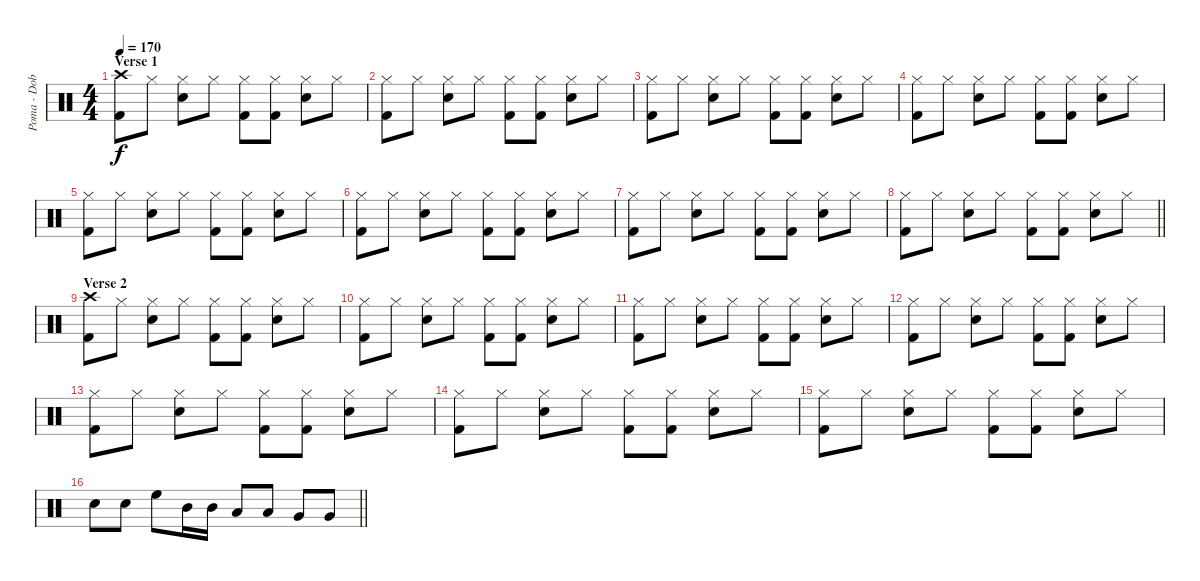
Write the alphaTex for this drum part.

\track ("Poma - Dob" "Poma - Dob") {instrument percussion}
\staff {score}
\articulation defaults
\ts (4 4)
\section ("" "Verse 1")
\tempo 170
\clef neutral
\ks c
("Crash high (hit)" "Kick (hit) 2").8{dy f} "Hi-Hat (closed)".8 ("Hi-Hat (closed)" "Electric Snare (hit)").8 "Hi-Hat (closed)".8 ("Hi-Hat (closed)" "Kick (hit) 2").8 ("Hi-Hat (closed)" "Kick (hit) 2").8 ("Hi-Hat (closed)" "Electric Snare (hit)").8 "Hi-Hat (closed)".8 |
("Hi-Hat (closed)" "Kick (hit) 2").8 "Hi-Hat (closed)".8 ("Hi-Hat (closed)" "Electric Snare (hit)").8 "Hi-Hat (closed)".8 ("Hi-Hat (closed)" "Kick (hit) 2").8 ("Hi-Hat (closed)" "Kick (hit) 2").8 ("Hi-Hat (closed)" "Electric Snare (hit)").8 "Hi-Hat (closed)".8 |
("Hi-Hat (closed)" "Kick (hit) 2").8 "Hi-Hat (closed)".8 ("Hi-Hat (closed)" "Electric Snare (hit)").8 "Hi-Hat (closed)".8 ("Hi-Hat (closed)" "Kick (hit) 2").8 ("Hi-Hat (closed)" "Kick (hit) 2").8 ("Hi-Hat (closed)" "Electric Snare (hit)").8 "Hi-Hat (closed)".8 |
("Hi-Hat (closed)" "Kick (hit) 2").8 "Hi-Hat (closed)".8 ("Hi-Hat (closed)" "Electric Snare (hit)").8 "Hi-Hat (closed)".8 ("Hi-Hat (closed)" "Kick (hit) 2").8 ("Hi-Hat (closed)" "Kick (hit) 2").8 ("Hi-Hat (closed)" "Electric Snare (hit)").8 "Hi-Hat (closed)".8 |
("Hi-Hat (closed)" "Kick (hit) 2").8 "Hi-Hat (closed)".8 ("Hi-Hat (closed)" "Electric Snare (hit)").8 "Hi-Hat (closed)".8 ("Hi-Hat (closed)" "Kick (hit) 2").8 ("Hi-Hat (closed)" "Kick (hit) 2").8 ("Hi-Hat (closed)" "Electric Snare (hit)").8 "Hi-Hat (closed)".8 |
("Hi-Hat (closed)" "Kick (hit) 2").8 "Hi-Hat (closed)".8 ("Hi-Hat (closed)" "Electric Snare (hit)").8 "Hi-Hat (closed)".8 ("Hi-Hat (closed)" "Kick (hit) 2").8 ("Hi-Hat (closed)" "Kick (hit) 2").8 ("Hi-Hat (closed)" "Electric Snare (hit)").8 "Hi-Hat (closed)".8 |
("Hi-Hat (closed)" "Kick (hit) 2").8 "Hi-Hat (closed)".8 ("Hi-Hat (closed)" "Electric Snare (hit)").8 "Hi-Hat (closed)".8 ("Hi-Hat (closed)" "Kick (hit) 2").8 ("Hi-Hat (closed)" "Kick (hit) 2").8 ("Hi-Hat (closed)" "Electric Snare (hit)").8 "Hi-Hat (closed)".8 |
\barLineRight lightlight
("Hi-Hat (closed)" "Kick (hit) 2").8 "Hi-Hat (closed)".8 ("Hi-Hat (closed)" "Electric Snare (hit)").8 "Hi-Hat (closed)".8 ("Hi-Hat (closed)" "Kick (hit) 2").8 ("Hi-Hat (closed)" "Kick (hit) 2").8 ("Hi-Hat (closed)" "Electric Snare (hit)").8 "Hi-Hat (closed)".8 |
\section ("" "Verse 2")
("Crash high (hit)" "Kick (hit) 2").8 "Hi-Hat (closed)".8 ("Hi-Hat (closed)" "Electric Snare (hit)").8 "Hi-Hat (closed)".8 ("Hi-Hat (closed)" "Kick (hit) 2").8 ("Hi-Hat (closed)" "Kick (hit) 2").8 ("Hi-Hat (closed)" "Electric Snare (hit)").8 "Hi-Hat (closed)".8 |
("Hi-Hat (closed)" "Kick (hit) 2").8 "Hi-Hat (closed)".8 ("Hi-Hat (closed)" "Electric Snare (hit)").8 "Hi-Hat (closed)".8 ("Hi-Hat (closed)" "Kick (hit) 2").8 ("Hi-Hat (closed)" "Kick (hit) 2").8 ("Hi-Hat (closed)" "Electric Snare (hit)").8 "Hi-Hat (closed)".8 |
("Hi-Hat (closed)" "Kick (hit) 2").8 "Hi-Hat (closed)".8 ("Hi-Hat (closed)" "Electric Snare (hit)").8 "Hi-Hat (closed)".8 ("Hi-Hat (closed)" "Kick (hit) 2").8 ("Hi-Hat (closed)" "Kick (hit) 2").8 ("Hi-Hat (closed)" "Electric Snare (hit)").8 "Hi-Hat (closed)".8 |
("Hi-Hat (closed)" "Kick (hit) 2").8 "Hi-Hat (closed)".8 ("Hi-Hat (closed)" "Electric Snare (hit)").8 "Hi-Hat (closed)".8 ("Hi-Hat (closed)" "Kick (hit) 2").8 ("Hi-Hat (closed)" "Kick (hit) 2").8 ("Hi-Hat (closed)" "Electric Snare (hit)").8 "Hi-Hat (closed)".8 |
("Hi-Hat (closed)" "Kick (hit) 2").8 "Hi-Hat (closed)".8 ("Hi-Hat (closed)" "Electric Snare (hit)").8 "Hi-Hat (closed)".8 ("Hi-Hat (closed)" "Kick (hit) 2").8 ("Hi-Hat (closed)" "Kick (hit) 2").8 ("Hi-Hat (closed)" "Electric Snare (hit)").8 "Hi-Hat (closed)".8 |
("Hi-Hat (closed)" "Kick (hit) 2").8 "Hi-Hat (closed)".8 ("Hi-Hat (closed)" "Electric Snare (hit)").8 "Hi-Hat (closed)".8 ("Hi-Hat (closed)" "Kick (hit) 2").8 ("Hi-Hat (closed)" "Kick (hit) 2").8 ("Hi-Hat (closed)" "Electric Snare (hit)").8 "Hi-Hat (closed)".8 |
("Hi-Hat (closed)" "Kick (hit) 2").8 "Hi-Hat (closed)".8 ("Hi-Hat (closed)" "Electric Snare (hit)").8 "Hi-Hat (closed)".8 ("Hi-Hat (closed)" "Kick (hit) 2").8 ("Hi-Hat (closed)" "Kick (hit) 2").8 ("Hi-Hat (closed)" "Electric Snare (hit)").8 "Hi-Hat (closed)".8 |
\barLineRight lightlight "Electric Snare (hit)".8 "Electric Snare (hit)".8 "High Floor Tom (hit)".8 "Mid Tom (hit)".16 "Mid Tom (hit)".16 "Low Tom (hit)".8 "Low Tom (hit)".8 "Very Low Tom (hit)".8 "Very Low Tom (hit)".8
